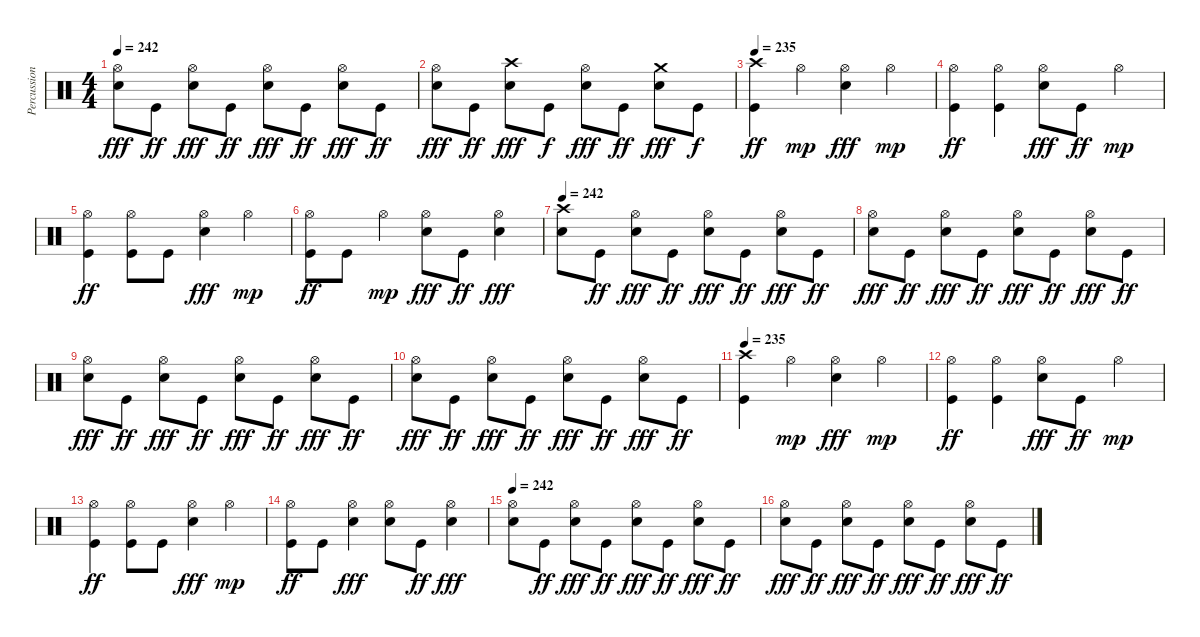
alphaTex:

\track ("Percussion" "Percussion") {instrument percussion}
\staff {score}
\articulation defaults
\ts (4 4)
\tempo 242
\clef neutral
\ks c
("Hi-Hat (open)" "Snare (hit) 2").8{dy fff} "Kick (hit)".8{dy ff} ("Hi-Hat (open)" "Snare (hit) 2").8{dy fff} "Kick (hit)".8{dy ff} ("Hi-Hat (open)" "Snare (hit) 2").8{dy fff} "Kick (hit)".8{dy ff} ("Hi-Hat (open)" "Snare (hit) 2").8{dy fff} "Kick (hit)".8{dy ff} |
("Hi-Hat (open)" "Snare (hit) 2").8{dy fff} "Kick (hit)".8{dy ff} ("Crash high (hit)" "Snare (hit) 2").8{dy fff} "Kick (hit)".8{dy f} ("Hi-Hat (open)" "Snare (hit) 2").8{dy fff} "Kick (hit)".8{dy ff} ("Crash medium (hit)" "Snare (hit) 2").8{dy fff} "Kick (hit)".8{dy f} |
\tempo 235
("Crash high (hit)" "Kick (hit)").4{dy ff} "Hi-Hat (open)".4{dy mp} ("Hi-Hat (open)" "Snare (hit) 2").4{dy fff} "Hi-Hat (open)".4{dy mp} |
("Hi-Hat (open)" "Kick (hit)").4{dy ff} ("Hi-Hat (open)" "Kick (hit)").4 ("Hi-Hat (open)" "Snare (hit) 2").8{dy fff} "Kick (hit)".8{dy ff} "Hi-Hat (open)".4{dy mp} |
("Hi-Hat (open)" "Kick (hit)").4{dy ff} ("Hi-Hat (open)" "Kick (hit)").8 "Kick (hit)".8 ("Hi-Hat (open)" "Snare (hit) 2").4{dy fff} "Hi-Hat (open)".4{dy mp} |
("Hi-Hat (open)" "Kick (hit)").8{dy ff} "Kick (hit)".8 "Hi-Hat (open)".4{dy mp} ("Hi-Hat (open)" "Snare (hit) 2").8{dy fff} "Kick (hit)".8{dy ff} ("Hi-Hat (open)" "Snare (hit) 2").4{dy fff} |
\tempo 242
("Crash high (hit)" "Snare (hit) 2").8 "Kick (hit)".8{dy ff} ("Hi-Hat (open)" "Snare (hit) 2").8{dy fff} "Kick (hit)".8{dy ff} ("Hi-Hat (open)" "Snare (hit) 2").8{dy fff} "Kick (hit)".8{dy ff} ("Hi-Hat (open)" "Snare (hit) 2").8{dy fff} "Kick (hit)".8{dy ff} |
("Hi-Hat (open)" "Snare (hit) 2").8{dy fff} "Kick (hit)".8{dy ff} ("Hi-Hat (open)" "Snare (hit) 2").8{dy fff} "Kick (hit)".8{dy ff} ("Hi-Hat (open)" "Snare (hit) 2").8{dy fff} "Kick (hit)".8{dy ff} ("Hi-Hat (open)" "Snare (hit) 2").8{dy fff} "Kick (hit)".8{dy ff} |
("Hi-Hat (open)" "Snare (hit) 2").8{dy fff} "Kick (hit)".8{dy ff} ("Hi-Hat (open)" "Snare (hit) 2").8{dy fff} "Kick (hit)".8{dy ff} ("Hi-Hat (open)" "Snare (hit) 2").8{dy fff} "Kick (hit)".8{dy ff} ("Hi-Hat (open)" "Snare (hit) 2").8{dy fff} "Kick (hit)".8{dy ff} |
("Hi-Hat (open)" "Snare (hit) 2").8{dy fff} "Kick (hit)".8{dy ff} ("Hi-Hat (open)" "Snare (hit) 2").8{dy fff} "Kick (hit)".8{dy ff} ("Hi-Hat (open)" "Snare (hit) 2").8{dy fff} "Kick (hit)".8{dy ff} ("Hi-Hat (open)" "Snare (hit) 2").8{dy fff} "Kick (hit)".8{dy ff} |
\tempo 235
("Crash high (hit)" "Kick (hit)").4 "Hi-Hat (open)".4{dy mp} ("Hi-Hat (open)" "Snare (hit) 2").4{dy fff} "Hi-Hat (open)".4{dy mp} |
("Hi-Hat (open)" "Kick (hit)").4{dy ff} ("Hi-Hat (open)" "Kick (hit)").4 ("Hi-Hat (open)" "Snare (hit) 2").8{dy fff} "Kick (hit)".8{dy ff} "Hi-Hat (open)".4{dy mp} |
("Hi-Hat (open)" "Kick (hit)").4{dy ff} ("Hi-Hat (open)" "Kick (hit)").8 "Kick (hit)".8 ("Hi-Hat (open)" "Snare (hit) 2").4{dy fff} "Hi-Hat (open)".4{dy mp} |
("Hi-Hat (open)" "Kick (hit)").8{dy ff} "Kick (hit)".8 ("Hi-Hat (open)" "Snare (hit) 2").4{dy fff} ("Hi-Hat (open)" "Snare (hit) 2").8 "Kick (hit)".8{dy ff} ("Hi-Hat (open)" "Snare (hit) 2").4{dy fff} |
\tempo 242
("Hi-Hat (open)" "Snare (hit) 2").8 "Kick (hit)".8{dy ff} ("Hi-Hat (open)" "Snare (hit) 2").8{dy fff} "Kick (hit)".8{dy ff} ("Hi-Hat (open)" "Snare (hit) 2").8{dy fff} "Kick (hit)".8{dy ff} ("Hi-Hat (open)" "Snare (hit) 2").8{dy fff} "Kick (hit)".8{dy ff} |
("Hi-Hat (open)" "Snare (hit) 2").8{dy fff} "Kick (hit)".8{dy ff} ("Hi-Hat (open)" "Snare (hit) 2").8{dy fff} "Kick (hit)".8{dy ff} ("Hi-Hat (open)" "Snare (hit) 2").8{dy fff} "Kick (hit)".8{dy ff} ("Hi-Hat (open)" "Snare (hit) 2").8{dy fff} "Kick (hit)".8{dy ff}
